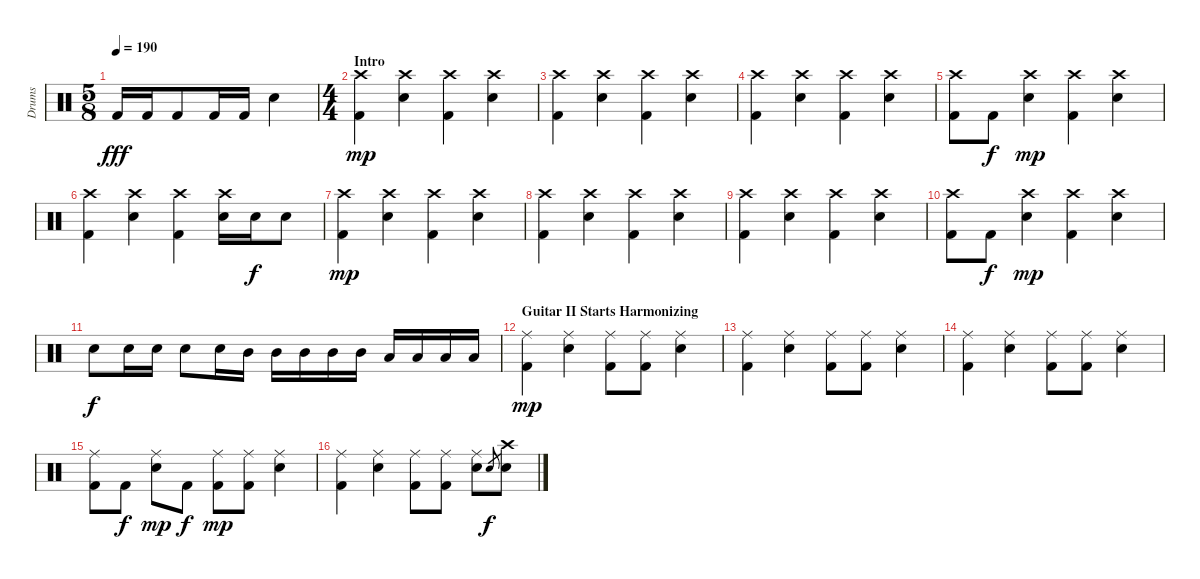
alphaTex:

\track ("Drums" "Drums") {instrument percussion}
\staff {score}
\articulation defaults
\ts (5 8)
\tempo 190
\clef neutral
\ks c "Kick (hit) 2".16{dy fff} "Kick (hit) 2".16 "Kick (hit) 2".8 "Kick (hit) 2".16 "Kick (hit) 2".16 "Snare (hit) 2".4
|
\ts (4 4)
\section ("" "Intro")
("Crash high (hit)" "Kick (hit) 2").4{dy mp} ("Crash high (hit)" "Snare (hit) 2").4 ("Crash high (hit)" "Kick (hit) 2").4 ("Crash high (hit)" "Snare (hit) 2").4 |
("Crash high (hit)" "Kick (hit) 2").4 ("Crash high (hit)" "Snare (hit) 2").4 ("Crash high (hit)" "Kick (hit) 2").4 ("Crash high (hit)" "Snare (hit) 2").4 |
("Crash high (hit)" "Kick (hit) 2").4 ("Crash high (hit)" "Snare (hit) 2").4 ("Crash high (hit)" "Kick (hit) 2").4 ("Crash high (hit)" "Snare (hit) 2").4 |
("Crash high (hit)" "Kick (hit) 2").8 "Kick (hit) 2".8{dy f} ("Crash high (hit)" "Snare (hit) 2").4{dy mp} ("Crash high (hit)" "Kick (hit) 2").4 ("Crash high (hit)" "Snare (hit) 2").4 |
("Crash high (hit)" "Kick (hit) 2").4 ("Crash high (hit)" "Snare (hit) 2").4 ("Crash high (hit)" "Kick (hit) 2").4 ("Crash high (hit)" "Snare (hit) 2").16 "Snare (hit) 2".16{dy f} "Snare (hit) 2".8 |
("Crash high (hit)" "Kick (hit) 2").4{dy mp} ("Crash high (hit)" "Snare (hit) 2").4 ("Crash high (hit)" "Kick (hit) 2").4 ("Crash high (hit)" "Snare (hit) 2").4 |
("Crash high (hit)" "Kick (hit) 2").4 ("Crash high (hit)" "Snare (hit) 2").4 ("Crash high (hit)" "Kick (hit) 2").4 ("Crash high (hit)" "Snare (hit) 2").4 |
("Crash high (hit)" "Kick (hit) 2").4 ("Crash high (hit)" "Snare (hit) 2").4 ("Crash high (hit)" "Kick (hit) 2").4 ("Crash high (hit)" "Snare (hit) 2").4 |
("Crash high (hit)" "Kick (hit) 2").8 "Kick (hit) 2".8{dy f} ("Crash high (hit)" "Snare (hit) 2").4{dy mp} ("Crash high (hit)" "Kick (hit) 2").4 ("Crash high (hit)" "Snare (hit) 2").4 |
"Snare (hit) 2".8{dy f} "Snare (hit) 2".16 "Snare (hit) 2".16 "Snare (hit) 2".8 "Snare (hit) 2".16 "Mid Tom (hit)".16 "Mid Tom (hit)".16 "Mid Tom (hit)".16 "Mid Tom (hit)".16 "Mid Tom (hit)".16 "Low Tom (hit)".16 "Low Tom (hit)".16 "Low Tom (hit)".16 "Low Tom (hit)".16 |
\section ("" "Guitar II Starts Harmonizing")
("Ride (middle)" "Kick (hit) 2").4{dy mp} ("Ride (middle)" "Snare (hit) 2").4 ("Ride (middle)" "Kick (hit) 2").8 ("Ride (middle)" "Kick (hit) 2").8 ("Ride (middle)" "Snare (hit) 2").4 |
("Ride (middle)" "Kick (hit) 2").4 ("Ride (middle)" "Snare (hit) 2").4 ("Ride (middle)" "Kick (hit) 2").8 ("Ride (middle)" "Kick (hit) 2").8 ("Ride (middle)" "Snare (hit) 2").4 |
("Ride (middle)" "Kick (hit) 2").4 ("Ride (middle)" "Snare (hit) 2").4 ("Ride (middle)" "Kick (hit) 2").8 ("Ride (middle)" "Kick (hit) 2").8 ("Ride (middle)" "Snare (hit) 2").4 |
("Ride (middle)" "Kick (hit) 2").8 "Kick (hit) 2".8{dy f} ("Ride (middle)" "Snare (hit) 2").8{dy mp} "Kick (hit) 2".8{dy f} ("Ride (middle)" "Kick (hit) 2").8{dy mp} ("Ride (middle)" "Kick (hit) 2").8 ("Ride (middle)" "Snare (hit) 2").4 |
("Ride (middle)" "Kick (hit) 2").4 ("Ride (middle)" "Snare (hit) 2").4 ("Ride (middle)" "Kick (hit) 2").8 ("Ride (middle)" "Kick (hit) 2").8 ("Ride (middle)" "Snare (hit) 2").8 "Snare (hit) 2".8{gr dy f} ("Crash high (hit)" "Snare (hit) 2").8
